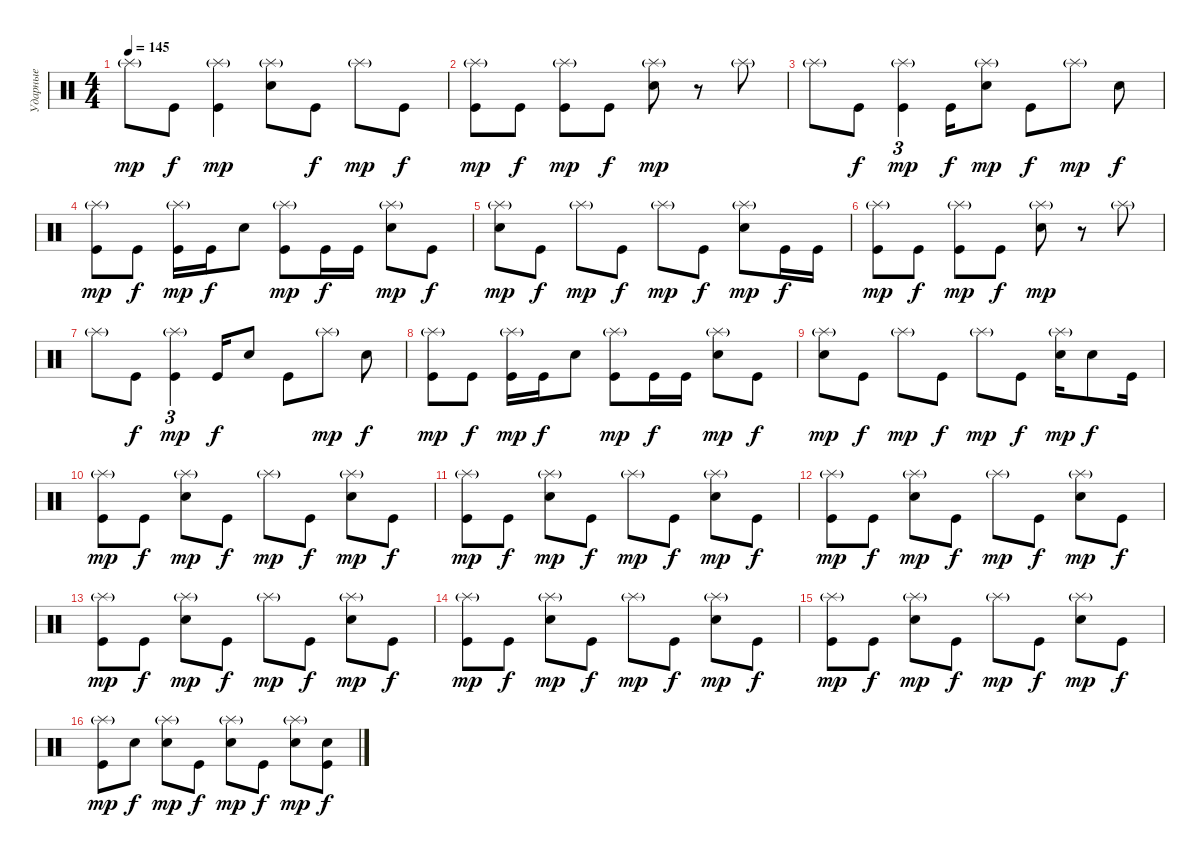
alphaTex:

\track ("Ударные" "Ударные") {instrument percussion}
\staff {score}
\articulation defaults
\ts (4 4)
\tempo 145
\clef neutral
\ks c "Splash (hit)"{g}.8{dy mp} "Kick (hit)".8{dy f}
("Splash (hit)"{g} "Kick (hit)").4{dy mp} ("Splash (hit)"{g} "Snare (hit) 2").8 "Kick (hit)".8{dy f} "Splash (hit)"{g}.8{dy mp} "Kick (hit)".8{dy f} |
("Splash (hit)"{g} "Kick (hit)").8{dy mp} "Kick (hit)".8{dy f} ("Splash (hit)"{g} "Kick (hit)").8{dy mp} "Kick (hit)".8{dy f} ("Splash (hit)"{g} "Snare (hit) 2").8{dy mp} r.8 "Splash (hit)"{g}.8 |
"Splash (hit)"{g}.8 "Kick (hit)".8{dy f} ("Splash (hit)"{g} "Kick (hit)").4{tu (3 2) dy mp} "Kick (hit)".16{dy f} ("Splash (hit)"{g} "Snare (hit) 2").8{dy mp} "Kick (hit)".8{dy f} "Splash (hit)"{g}.8{dy mp} "Electric Snare (hit)".8{dy f} |
("Splash (hit)"{g} "Kick (hit)").8{dy mp} "Kick (hit)".8{dy f} ("Splash (hit)"{g} "Kick (hit)").16{dy mp} "Kick (hit)".16{dy f} "Snare (hit) 2".8 ("Splash (hit)"{g} "Kick (hit)").8{dy mp} "Kick (hit)".16{dy f} "Kick (hit)".16 ("Splash (hit)"{g} "Snare (hit) 2").8{dy mp} "Kick (hit)".8{dy f} |
("Splash (hit)"{g} "Snare (hit) 2").8{dy mp} "Kick (hit)".8{dy f} "Splash (hit)"{g}.8{dy mp} "Kick (hit)".8{dy f} "Splash (hit)"{g}.8{dy mp} "Kick (hit)".8{dy f} ("Splash (hit)"{g} "Snare (hit) 2").8{dy mp} "Kick (hit)".16{dy f} "Kick (hit)".16 |
("Splash (hit)"{g} "Kick (hit)").8{dy mp} "Kick (hit)".8{dy f} ("Splash (hit)"{g} "Kick (hit)").8{dy mp} "Kick (hit)".8{dy f} ("Splash (hit)"{g} "Snare (hit) 2").8{dy mp} r.8 "Splash (hit)"{g}.8 |
"Splash (hit)"{g}.8 "Kick (hit)".8{dy f} ("Splash (hit)"{g} "Kick (hit)").4{tu (3 2) dy mp} "Kick (hit)".16{dy f} "Snare (hit) 2".8 "Kick (hit)".8 "Splash (hit)"{g}.8{dy mp} "Electric Snare (hit)".8{dy f} |
("Splash (hit)"{g} "Kick (hit)").8{dy mp} "Kick (hit)".8{dy f} ("Splash (hit)"{g} "Kick (hit)").16{dy mp} "Kick (hit)".16{dy f} "Snare (hit) 2".8 ("Splash (hit)"{g} "Kick (hit)").8{dy mp} "Kick (hit)".16{dy f} "Kick (hit)".16 ("Splash (hit)"{g} "Snare (hit) 2").8{dy mp} "Kick (hit)".8{dy f} |
("Splash (hit)"{g} "Snare (hit) 2").8{dy mp} "Kick (hit)".8{dy f} "Splash (hit)"{g}.8{dy mp} "Kick (hit)".8{dy f} "Splash (hit)"{g}.8{dy mp} "Kick (hit)".8{dy f} ("Splash (hit)"{g} "Snare (hit) 2").16{dy mp} "Snare (hit) 2".8{dy f} "Kick (hit)".16 |
("Splash (hit)"{g} "Kick (hit)").8{dy mp} "Kick (hit)".8{dy f} ("Splash (hit)"{g} "Snare (hit) 2").8{dy mp} "Kick (hit)".8{dy f} "Splash (hit)"{g}.8{dy mp} "Kick (hit)".8{dy f} ("Splash (hit)"{g} "Snare (hit) 2").8{dy mp} "Kick (hit)".8{dy f} |
("Splash (hit)"{g} "Kick (hit)").8{dy mp} "Kick (hit)".8{dy f} ("Splash (hit)"{g} "Snare (hit) 2").8{dy mp} "Kick (hit)".8{dy f} "Splash (hit)"{g}.8{dy mp} "Kick (hit)".8{dy f} ("Splash (hit)"{g} "Snare (hit) 2").8{dy mp} "Kick (hit)".8{dy f} |
("Splash (hit)"{g} "Kick (hit)").8{dy mp} "Kick (hit)".8{dy f} ("Splash (hit)"{g} "Snare (hit) 2").8{dy mp} "Kick (hit)".8{dy f} "Splash (hit)"{g}.8{dy mp} "Kick (hit)".8{dy f} ("Splash (hit)"{g} "Snare (hit) 2").8{dy mp} "Kick (hit)".8{dy f} |
("Splash (hit)"{g} "Kick (hit)").8{dy mp} "Kick (hit)".8{dy f} ("Splash (hit)"{g} "Snare (hit) 2").8{dy mp} "Kick (hit)".8{dy f} "Splash (hit)"{g}.8{dy mp} "Kick (hit)".8{dy f} ("Splash (hit)"{g} "Snare (hit) 2").8{dy mp} "Kick (hit)".8{dy f} |
("Splash (hit)"{g} "Kick (hit)").8{dy mp} "Kick (hit)".8{dy f} ("Splash (hit)"{g} "Snare (hit) 2").8{dy mp} "Kick (hit)".8{dy f} "Splash (hit)"{g}.8{dy mp} "Kick (hit)".8{dy f} ("Splash (hit)"{g} "Snare (hit) 2").8{dy mp} "Kick (hit)".8{dy f} |
("Splash (hit)"{g} "Kick (hit)").8{dy mp} "Kick (hit)".8{dy f} ("Splash (hit)"{g} "Snare (hit) 2").8{dy mp} "Kick (hit)".8{dy f} "Splash (hit)"{g}.8{dy mp} "Kick (hit)".8{dy f} ("Splash (hit)"{g} "Snare (hit) 2").8{dy mp} "Kick (hit)".8{dy f} |
("Splash (hit)"{g} "Kick (hit)").8{dy mp} "Electric Snare (hit)".8{dy f} ("Splash (hit)"{g} "Electric Snare (hit)").8{dy mp} "Kick (hit)".8{dy f} ("Splash (hit)"{g} "Electric Snare (hit)").8{dy mp} "Kick (hit)".8{dy f} ("Splash (hit)"{g} "Snare (hit) 2").8{dy mp} ("Electric Snare (hit)" "Kick (hit)").8{dy f}
